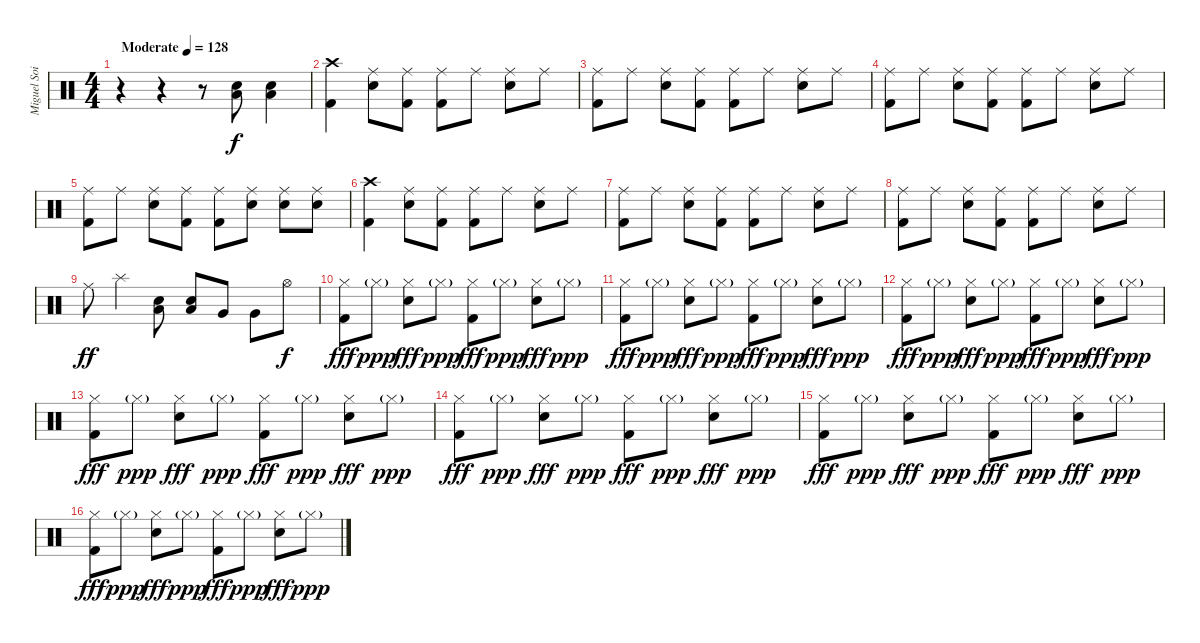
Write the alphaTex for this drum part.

\track ("Miguel Soifer (Batería)" "Miguel Soi") {instrument percussion}
\staff {score}
\articulation defaults
\ts (4 4)
\tempo (128 "Moderate")
\clef neutral
\ks c
r.4{dy f} r.4 r.8 ("Snare (hit) 2" "Low Floor Tom (hit)").8 ("Snare (hit) 2" "Low Floor Tom (hit)").4 |
("Crash high (hit)" "Kick (hit) 2").4 ("Ride (middle)" "Snare (hit) 2").8 ("Ride (middle)" "Kick (hit) 2").8 ("Ride (middle)" "Kick (hit) 2").8 "Ride (middle)".8 ("Ride (middle)" "Snare (hit) 2").8 "Ride (middle)".8 |
("Ride (middle)" "Kick (hit) 2").8 "Ride (middle)".8 ("Ride (middle)" "Snare (hit) 2").8 ("Ride (middle)" "Kick (hit) 2").8 ("Ride (middle)" "Kick (hit) 2").8 "Ride (middle)".8 ("Ride (middle)" "Snare (hit) 2").8 "Ride (middle)".8 |
("Ride (middle)" "Kick (hit) 2").8 "Ride (middle)".8 ("Ride (middle)" "Snare (hit) 2").8 ("Ride (middle)" "Kick (hit) 2").8 ("Ride (middle)" "Kick (hit) 2").8 "Ride (middle)".8 ("Ride (middle)" "Snare (hit) 2").8 "Ride (middle)".8 |
("Ride (middle)" "Kick (hit) 2").8 "Ride (middle)".8 ("Ride (middle)" "Snare (hit) 2").8 ("Ride (middle)" "Kick (hit) 2").8 ("Ride (middle)" "Kick (hit) 2").8 ("Ride (middle)" "Snare (hit) 2").8 ("Ride (middle)" "Snare (hit) 2").8 ("Ride (middle)" "Snare (hit) 2").8 |
("Crash high (hit)" "Kick (hit) 2").4 ("Ride (middle)" "Snare (hit) 2").8 ("Ride (middle)" "Kick (hit) 2").8 ("Ride (middle)" "Kick (hit) 2").8 "Ride (middle)".8 ("Ride (middle)" "Snare (hit) 2").8 "Ride (middle)".8 |
("Ride (middle)" "Kick (hit) 2").8 "Ride (middle)".8 ("Ride (middle)" "Snare (hit) 2").8 ("Ride (middle)" "Kick (hit) 2").8 ("Ride (middle)" "Kick (hit) 2").8 "Ride (middle)".8 ("Ride (middle)" "Snare (hit) 2").8 "Ride (middle)".8 |
("Ride (middle)" "Kick (hit) 2").8 "Ride (middle)".8 ("Ride (middle)" "Snare (hit) 2").8 ("Ride (middle)" "Kick (hit) 2").8 ("Ride (middle)" "Kick (hit) 2").8 "Ride (middle)".8 ("Ride (middle)" "Snare (hit) 2").8 "Ride (middle)".8 |
"Ride (middle)".8{dy ff} "Splash (hit)".4 ("Snare (hit) 2" "Low Tom (hit)").8 ("Snare (hit) 2" "Low Tom (hit)").8 "Very Low Tom (hit)".8 "Very Low Tom (hit)".8 "Hi-Hat (open)".8{dy f} |
("Hi-Hat (closed)" "Kick (hit) 2").8{dy fff} "Hi-Hat (closed)"{g}.8{dy ppp} ("Hi-Hat (closed)" "Snare (hit) 2").8{dy fff} "Hi-Hat (closed)"{g}.8{dy ppp} ("Hi-Hat (closed)" "Kick (hit) 2").8{dy fff} "Hi-Hat (closed)"{g}.8{dy ppp} ("Hi-Hat (closed)" "Snare (hit) 2").8{dy fff} "Hi-Hat (closed)"{g}.8{dy ppp} |
("Hi-Hat (closed)" "Kick (hit) 2").8{dy fff} "Hi-Hat (closed)"{g}.8{dy ppp} ("Hi-Hat (closed)" "Snare (hit) 2").8{dy fff} "Hi-Hat (closed)"{g}.8{dy ppp} ("Hi-Hat (closed)" "Kick (hit) 2").8{dy fff} "Hi-Hat (closed)"{g}.8{dy ppp} ("Hi-Hat (closed)" "Snare (hit) 2").8{dy fff} "Hi-Hat (closed)"{g}.8{dy ppp} |
("Hi-Hat (closed)" "Kick (hit) 2").8{dy fff} "Hi-Hat (closed)"{g}.8{dy ppp} ("Hi-Hat (closed)" "Snare (hit) 2").8{dy fff} "Hi-Hat (closed)"{g}.8{dy ppp} ("Hi-Hat (closed)" "Kick (hit) 2").8{dy fff} "Hi-Hat (closed)"{g}.8{dy ppp} ("Hi-Hat (closed)" "Snare (hit) 2").8{dy fff} "Hi-Hat (closed)"{g}.8{dy ppp} |
("Hi-Hat (closed)" "Kick (hit) 2").8{dy fff} "Hi-Hat (closed)"{g}.8{dy ppp} ("Hi-Hat (closed)" "Snare (hit) 2").8{dy fff} "Hi-Hat (closed)"{g}.8{dy ppp} ("Hi-Hat (closed)" "Kick (hit) 2").8{dy fff} "Hi-Hat (closed)"{g}.8{dy ppp} ("Hi-Hat (closed)" "Snare (hit) 2").8{dy fff} "Hi-Hat (closed)"{g}.8{dy ppp} |
("Hi-Hat (closed)" "Kick (hit) 2").8{dy fff} "Hi-Hat (closed)"{g}.8{dy ppp} ("Hi-Hat (closed)" "Snare (hit) 2").8{dy fff} "Hi-Hat (closed)"{g}.8{dy ppp} ("Hi-Hat (closed)" "Kick (hit) 2").8{dy fff} "Hi-Hat (closed)"{g}.8{dy ppp} ("Hi-Hat (closed)" "Snare (hit) 2").8{dy fff} "Hi-Hat (closed)"{g}.8{dy ppp} |
("Hi-Hat (closed)" "Kick (hit) 2").8{dy fff} "Hi-Hat (closed)"{g}.8{dy ppp} ("Hi-Hat (closed)" "Snare (hit) 2").8{dy fff} "Hi-Hat (closed)"{g}.8{dy ppp} ("Hi-Hat (closed)" "Kick (hit) 2").8{dy fff} "Hi-Hat (closed)"{g}.8{dy ppp} ("Hi-Hat (closed)" "Snare (hit) 2").8{dy fff} "Hi-Hat (closed)"{g}.8{dy ppp} |
("Hi-Hat (closed)" "Kick (hit) 2").8{dy fff} "Hi-Hat (closed)"{g}.8{dy ppp} ("Hi-Hat (closed)" "Snare (hit) 2").8{dy fff} "Hi-Hat (closed)"{g}.8{dy ppp} ("Hi-Hat (closed)" "Kick (hit) 2").8{dy fff} "Hi-Hat (closed)"{g}.8{dy ppp} ("Hi-Hat (closed)" "Snare (hit) 2").8{dy fff} "Hi-Hat (closed)"{g}.8{dy ppp}
